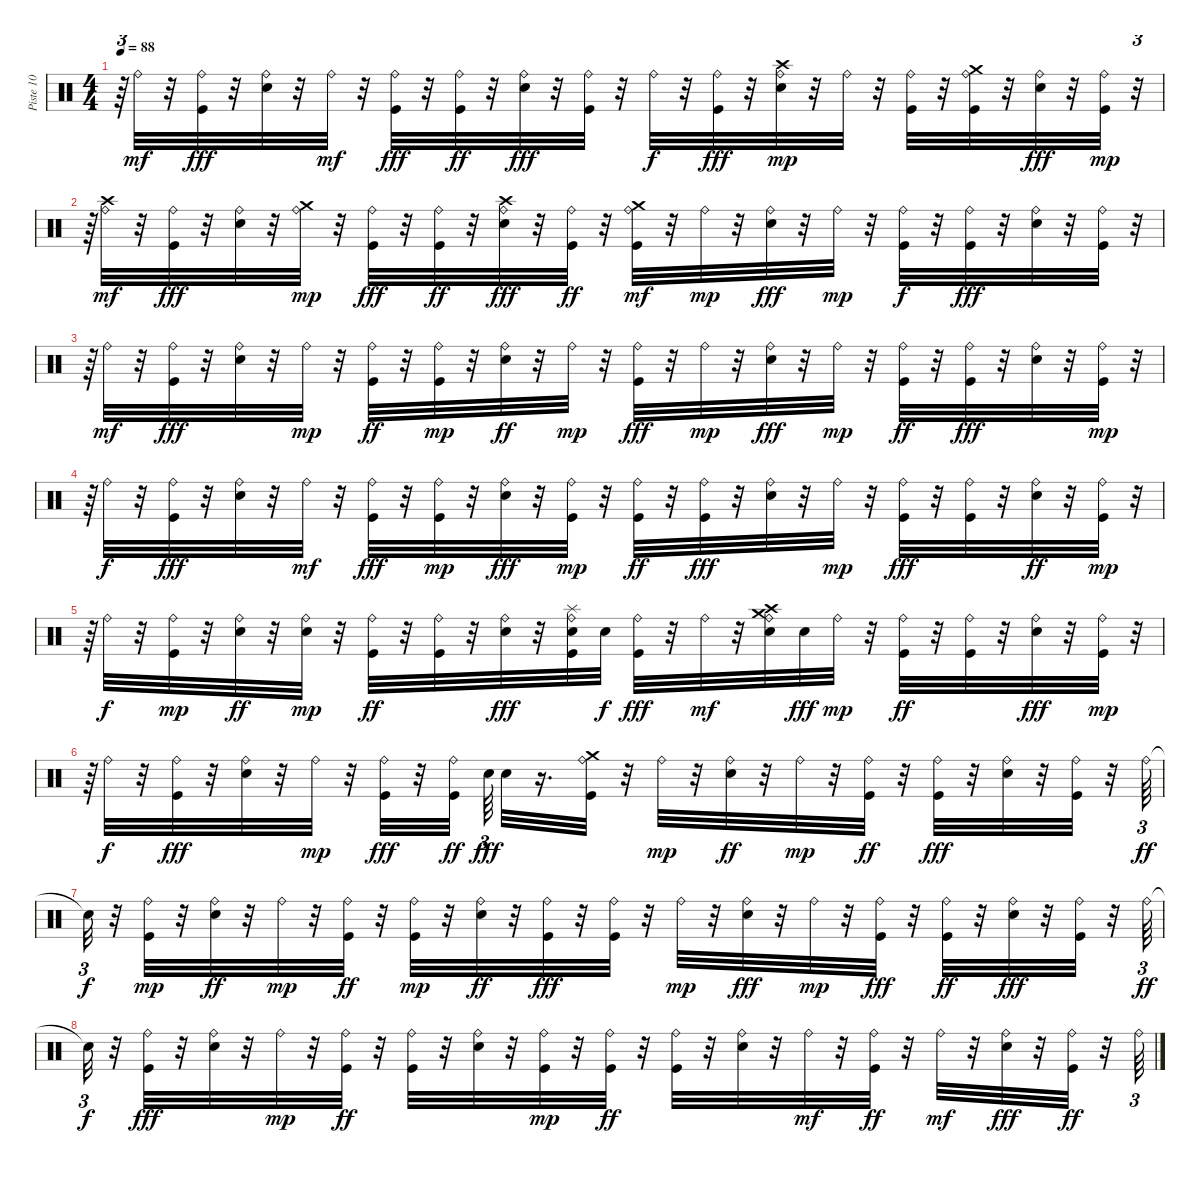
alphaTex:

\track ("Piste 10" "Piste 10") {instrument percussion}
\staff {score}
\articulation defaults
\ts (4 4)
\tempo 88
\clef neutral
\ks c
r.64{tu (3 2) dy fff} "Ride (bell)".32{dy mf} r.32 ("Ride (bell)" "Kick (hit)").32{dy fff} r.32 ("Ride (bell)" "Electric Snare (hit)").32 r.32 "Ride (bell)".32{dy mf} r.32 ("Ride (bell)" "Kick (hit)").32{dy fff} r.32 ("Ride (bell)" "Kick (hit)").32{dy ff} r.32 ("Ride (bell)" "Electric Snare (hit)").32{dy fff} r.32 ("Ride (bell)" "Kick (hit)").32 r.32 "Ride (bell)".32{dy f} r.32 ("Ride (bell)" "Kick (hit)").32{dy fff} r.32 ("Ride (bell)" "Electric Snare (hit)" "Crash high (hit)").32{dy mp} r.32 "Ride (bell)".32 r.32 ("Kick (hit)" "Ride (bell)").32 r.32 ("Kick (hit)" "Ride (bell)" "Crash medium (hit)").32 r.32 ("Electric Snare (hit)" "Ride (bell)").32{dy fff} r.32 ("Kick (hit)" "Ride (bell)").32{dy mp} r.32{tu (3 2)} |
r.64{tu (3 2)} ("Ride (bell)" "Crash high (hit)").32{dy mf} r.32 ("Ride (bell)" "Kick (hit)").32{dy fff} r.32 ("Ride (bell)" "Electric Snare (hit)").32 r.32 ("Ride (bell)" "Crash medium (hit)").32{dy mp} r.32 ("Ride (bell)" "Kick (hit)").32{dy fff} r.32 ("Ride (bell)" "Kick (hit)").32{dy ff} r.32 ("Ride (bell)" "Electric Snare (hit)" "Crash high (hit)").32{dy fff} r.32 ("Ride (bell)" "Kick (hit)").32{dy ff} r.32 ("Ride (bell)" "Kick (hit)" "Crash medium (hit)").32{dy mf} r.32 "Ride (bell)".32{dy mp} r.32 ("Ride (bell)" "Electric Snare (hit)").32{dy fff} r.32 "Ride (bell)".32{dy mp} r.32 ("Ride (bell)" "Kick (hit)").32{dy f} r.32 ("Ride (bell)" "Kick (hit)").32{dy fff} r.32 ("Ride (bell)" "Electric Snare (hit)").32 r.32 ("Ride (bell)" "Kick (hit)").32 r.32{tu (3 2)} |
r.64{tu (3 2)} "Ride (bell)".32{dy mf} r.32 ("Ride (bell)" "Kick (hit)").32{dy fff} r.32 ("Ride (bell)" "Electric Snare (hit)").32 r.32 "Ride (bell)".32{dy mp} r.32 ("Kick (hit)" "Ride (bell)").32{dy ff} r.32 ("Kick (hit)" "Ride (bell)").32{dy mp} r.32 ("Electric Snare (hit)" "Ride (bell)").32{dy ff} r.32 "Ride (bell)".32{dy mp} r.32 ("Ride (bell)" "Kick (hit)").32{dy fff} r.32 "Ride (bell)".32{dy mp} r.32 ("Electric Snare (hit)" "Ride (bell)").32{dy fff} r.32 "Ride (bell)".32{dy mp} r.32 ("Ride (bell)" "Kick (hit)").32{dy ff} r.32 ("Ride (bell)" "Kick (hit)").32{dy fff} r.32 ("Ride (bell)" "Electric Snare (hit)").32 r.32 ("Kick (hit)" "Ride (bell)").32{dy mp} r.32{tu (3 2)} |
r.64{tu (3 2)} "Ride (bell)".32{dy f} r.32 ("Ride (bell)" "Kick (hit)").32{dy fff} r.32 ("Ride (bell)" "Electric Snare (hit)").32 r.32 "Ride (bell)".32{dy mf} r.32 ("Ride (bell)" "Kick (hit)").32{dy fff} r.32 ("Kick (hit)" "Ride (bell)").32{dy mp} r.32 ("Ride (bell)" "Electric Snare (hit)").32{dy fff} r.32 ("Kick (hit)" "Ride (bell)").32{dy mp} r.32 ("Ride (bell)" "Kick (hit)").32{dy ff} r.32 ("Ride (bell)" "Kick (hit)").32{dy fff} r.32 ("Ride (bell)" "Electric Snare (hit)").32 r.32 "Ride (bell)".32{dy mp} r.32 ("Kick (hit)" "Ride (bell)").32{dy fff} r.32 ("Ride (bell)" "Kick (hit)").32 r.32 ("Electric Snare (hit)" "Ride (bell)").32{dy ff} r.32 ("Kick (hit)" "Ride (bell)").32{dy mp} r.32{tu (3 2)} |
r.64{tu (3 2)} "Ride (bell)".32{dy f} r.32 ("Kick (hit)" "Ride (bell)").32{dy mp} r.32 ("Electric Snare (hit)" "Ride (bell)").32{dy ff} r.32 ("Electric Snare (hit)" "Ride (bell)").32{dy mp} r.32 ("Ride (bell)" "Kick (hit)").32{dy ff} r.32 ("Ride (bell)" "Kick (hit)").32 r.32 ("Ride (bell)" "Electric Snare (hit)").32{dy fff} r.32 ("Ride (bell)" "Kick (hit)" "Splash (hit)" "Electric Snare (hit)").32 "Electric Snare (hit)".32{dy f} ("Ride (bell)" "Kick (hit)").32{dy fff} r.32 "Ride (bell)".32{dy mf} r.32 ("Ride (bell)" "Electric Snare (hit)" "Crash high (hit)" "Crash medium (hit)").32 "Electric Snare (hit)".32{dy fff} "Ride (bell)".32{dy mp} r.32 ("Ride (bell)" "Kick (hit)").32{dy ff} r.32 ("Ride (bell)" "Kick (hit)").32 r.32 ("Ride (bell)" "Electric Snare (hit)").32{dy fff} r.32 ("Kick (hit)" "Ride (bell)").32{dy mp} r.32{tu (3 2)} |
r.64{tu (3 2)} "Ride (bell)".32{dy f} r.32 ("Ride (bell)" "Kick (hit)").32{dy fff} r.32 ("Ride (bell)" "Electric Snare (hit)").32 r.32 "Ride (bell)".32{dy mp} r.32 ("Ride (bell)" "Kick (hit)").32{dy fff} r.32 ("Ride (bell)" "Kick (hit)").32{dy ff} "Electric Snare (hit)".64{tu (3 2) dy fff} "Electric Snare (hit)".32 r.16{d} ("Ride (bell)" "Crash medium (hit)" "Kick (hit)").32 r.32 "Ride (bell)".32{dy mp} r.32 ("Electric Snare (hit)" "Ride (bell)").32{dy ff} r.32 "Ride (bell)".32{dy mp} r.32 ("Ride (bell)" "Kick (hit)").32{dy ff} r.32 ("Ride (bell)" "Kick (hit)").32{dy fff} r.32 ("Ride (bell)" "Electric Snare (hit)").32 r.32 ("Ride (bell)" "Kick (hit)").32 r.32 "Ride (bell)".64{tu (3 2) dy ff} |
"Snare (hit)"{t}.32{tu (3 2) dy f} r.32 ("Kick (hit)" "Ride (bell)").32{dy mp} r.32 ("Electric Snare (hit)" "Ride (bell)").32{dy ff} r.32 "Ride (bell)".32{dy mp} r.32 ("Kick (hit)" "Ride (bell)").32{dy ff} r.32 ("Kick (hit)" "Ride (bell)").32{dy mp} r.32 ("Electric Snare (hit)" "Ride (bell)").32{dy ff} r.32 ("Ride (bell)" "Kick (hit)").32{dy fff} r.32 ("Ride (bell)" "Kick (hit)").32 r.32 "Ride (bell)".32{dy mp} r.32 ("Ride (bell)" "Electric Snare (hit)").32{dy fff} r.32 "Ride (bell)".32{dy mp} r.32 ("Ride (bell)" "Kick (hit)").32{dy fff} r.32 ("Ride (bell)" "Kick (hit)").32{dy ff} r.32 ("Ride (bell)" "Electric Snare (hit)").32{dy fff} r.32 ("Ride (bell)" "Kick (hit)").32 r.32 "Ride (bell)".64{tu (3 2) dy ff} |
"Snare (hit)"{t}.32{tu (3 2) dy f} r.32 ("Ride (bell)" "Kick (hit)").32{dy fff} r.32 ("Ride (bell)" "Electric Snare (hit)").32 r.32 "Ride (bell)".32{dy mp} r.32 ("Ride (bell)" "Kick (hit)").32{dy ff} r.32 ("Ride (bell)" "Kick (hit)").32 r.32 ("Electric Snare (hit)" "Ride (bell)").32 r.32 ("Kick (hit)" "Ride (bell)").32{dy mp} r.32 ("Ride (bell)" "Kick (hit)").32{dy ff} r.32 ("Ride (bell)" "Kick (hit)").32 r.32 ("Electric Snare (hit)" "Ride (bell)").32 r.32 "Ride (bell)".32{dy mf} r.32 ("Kick (hit)" "Ride (bell)").32{dy ff} r.32 "Ride (bell)".32{dy mf} r.32 ("Ride (bell)" "Electric Snare (hit)").32{dy fff} r.32 ("Ride (bell)" "Kick (hit)").32{dy ff} r.32 "Ride (bell)".64{tu (3 2)}
